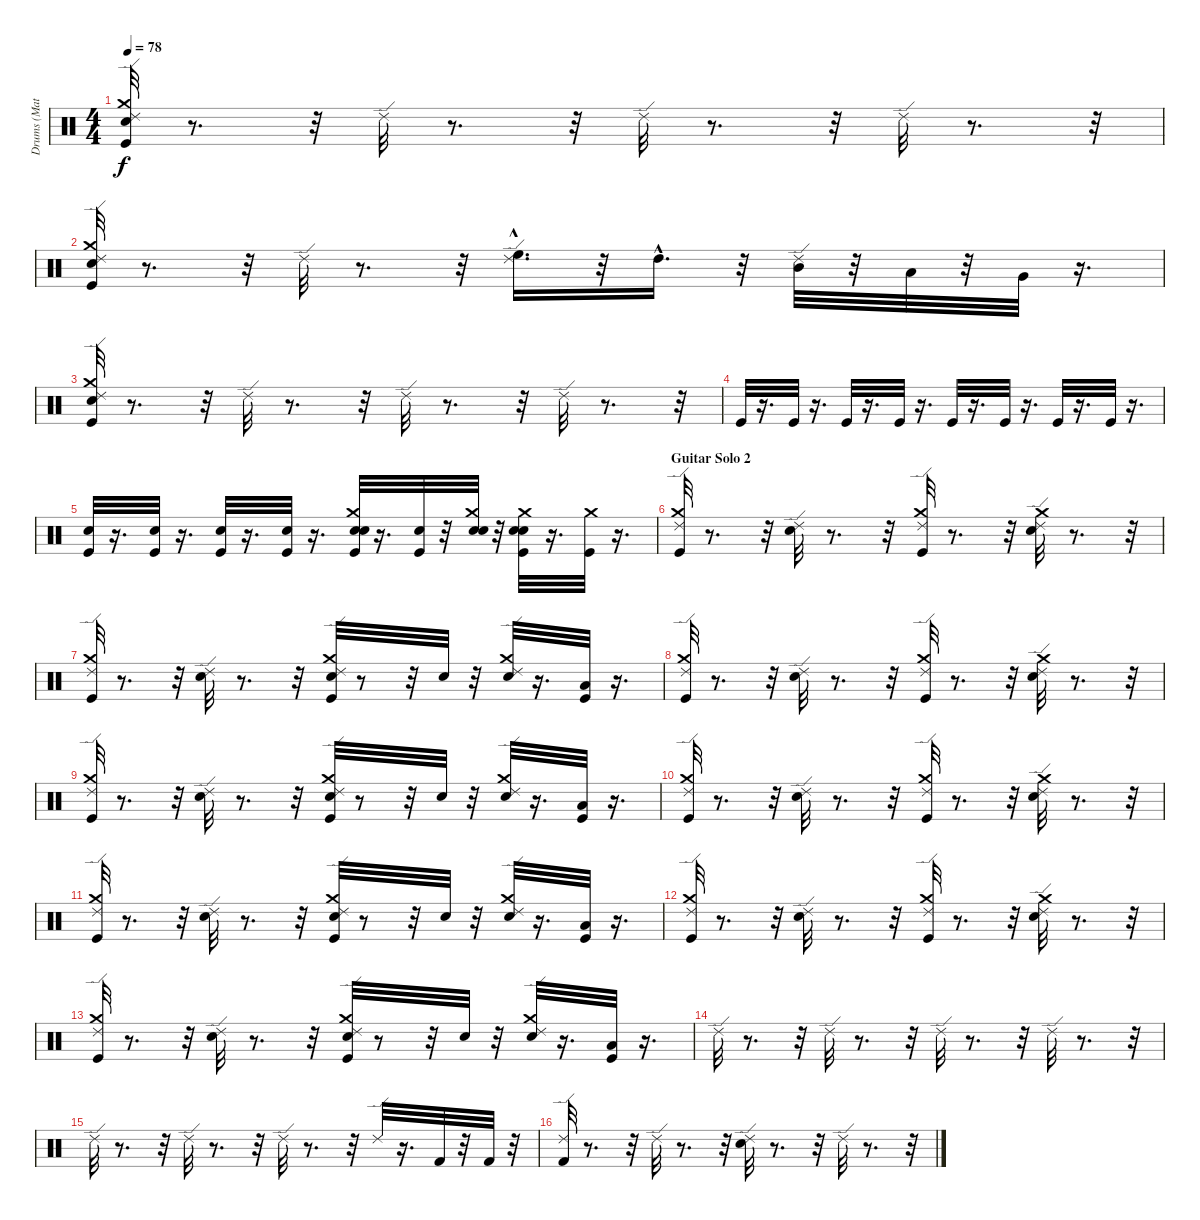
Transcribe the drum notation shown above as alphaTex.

\track ("Drums (Matt)" "Drums (Mat") {instrument percussion}
\staff {score}
\articulation defaults
\ts (4 4)
\tempo 78
\clef neutral
\ks c
("Kick (hit)" "Snare (hit) 2" "Crash medium (hit)" "Ride (edge) 2").32{dy f} r.8{d} r.32 "Ride (edge) 2".32 r.8{d} r.32 "Ride (edge) 2".32 r.8{d} r.32 "Ride (edge) 2".32 r.8{d} r.32 |
("Kick (hit)" "Snare (hit) 2" "Crash medium (hit)" "Ride (edge) 2").32 r.8{d} r.32 "Ride (edge) 2".32 r.8{d} r.32 ("Ride (edge) 2" "High Floor Tom (hit)"{hac}).16{d} r.32 "High Tom (hit)"{hac}.16{d} r.32 ("Ride (edge) 2" "Mid Tom (hit)").32 r.32 "Low Tom (hit)".32 r.32 "Very Low Tom (hit)".32 r.16{d} |
("Kick (hit)" "Snare (hit) 2" "Crash medium (hit)" "Ride (edge) 2").32 r.8{d} r.32 "Ride (edge) 2".32 r.8{d} r.32 "Ride (edge) 2".32 r.8{d} r.32 "Ride (edge) 2".32 r.8{d} r.32 |
"Kick (hit)".32 r.16{d} "Kick (hit)".32 r.16{d} "Kick (hit)".32 r.16{d} "Kick (hit)".32 r.16{d} "Kick (hit)".32 r.16{d} "Kick (hit)".32 r.16{d} "Kick (hit)".32 r.16{d} "Kick (hit)".32 r.16{d} |
("Kick (hit)" "Snare (hit) 2").32 r.16{d} ("Kick (hit)" "Snare (hit) 2").32 r.16{d} ("Kick (hit)" "Snare (hit) 2").32 r.16{d} ("Kick (hit)" "Snare (hit) 2").32 r.16{d} ("Kick (hit)" "Snare (hit) 2" "Electric Snare (hit)" "Crash medium (hit)").32 r.16{d} ("Kick (hit)" "Snare (hit) 2").32 r.32 ("Snare (hit) 2" "Electric Snare (hit)" "Crash medium (hit)").32 r.32 ("Kick (hit)" "Snare (hit) 2" "Electric Snare (hit)" "Crash medium (hit)").32 r.16{d} ("Kick (hit)" "Crash medium (hit)").32 r.16{d} |
\section ("" "Guitar Solo 2")
("Kick (hit)" "Crash medium (hit)" "Ride (edge) 2").32 r.8{d} r.32 ("Snare (hit) 2" "Ride (edge) 2").32 r.8{d} r.32 ("Ride (edge) 2" "Crash medium (hit)" "Kick (hit)").32 r.8{d} r.32 ("Ride (edge) 2" "Crash medium (hit)" "Snare (hit) 2").32 r.8{d} r.32 |
("Kick (hit)" "Crash medium (hit)" "Ride (edge) 2").32 r.8{d} r.32 ("Snare (hit) 2" "Ride (edge) 2").32 r.8{d} r.32 ("Ride (edge) 2" "Crash medium (hit)" "Kick (hit)" "Snare (hit) 2").32 r.8 r.32 "Snare (hit) 2".32 r.32 ("Ride (edge) 2" "Crash medium (hit)" "Snare (hit) 2").32 r.16{d} ("Kick (hit)" "Low Floor Tom (hit)").32 r.16{d} |
("Kick (hit)" "Crash medium (hit)" "Ride (edge) 2").32 r.8{d} r.32 ("Snare (hit) 2" "Ride (edge) 2").32 r.8{d} r.32 ("Ride (edge) 2" "Crash medium (hit)" "Kick (hit)").32 r.8{d} r.32 ("Ride (edge) 2" "Crash medium (hit)" "Snare (hit) 2").32 r.8{d} r.32 |
("Kick (hit)" "Crash medium (hit)" "Ride (edge) 2").32 r.8{d} r.32 ("Snare (hit) 2" "Ride (edge) 2").32 r.8{d} r.32 ("Ride (edge) 2" "Crash medium (hit)" "Kick (hit)" "Snare (hit) 2").32 r.8 r.32 "Snare (hit) 2".32 r.32 ("Ride (edge) 2" "Crash medium (hit)" "Snare (hit) 2").32 r.16{d} ("Kick (hit)" "Low Floor Tom (hit)").32 r.16{d} |
("Kick (hit)" "Crash medium (hit)" "Ride (edge) 2").32 r.8{d} r.32 ("Snare (hit) 2" "Ride (edge) 2").32 r.8{d} r.32 ("Ride (edge) 2" "Crash medium (hit)" "Kick (hit)").32 r.8{d} r.32 ("Ride (edge) 2" "Crash medium (hit)" "Snare (hit) 2").32 r.8{d} r.32 |
("Kick (hit)" "Crash medium (hit)" "Ride (edge) 2").32 r.8{d} r.32 ("Snare (hit) 2" "Ride (edge) 2").32 r.8{d} r.32 ("Ride (edge) 2" "Crash medium (hit)" "Kick (hit)" "Snare (hit) 2").32 r.8 r.32 "Snare (hit) 2".32 r.32 ("Ride (edge) 2" "Crash medium (hit)" "Snare (hit) 2").32 r.16{d} ("Kick (hit)" "Low Floor Tom (hit)").32 r.16{d} |
("Kick (hit)" "Crash medium (hit)" "Ride (edge) 2").32 r.8{d} r.32 ("Snare (hit) 2" "Ride (edge) 2").32 r.8{d} r.32 ("Ride (edge) 2" "Crash medium (hit)" "Kick (hit)").32 r.8{d} r.32 ("Ride (edge) 2" "Crash medium (hit)" "Snare (hit) 2").32 r.8{d} r.32 |
("Kick (hit)" "Crash medium (hit)" "Ride (edge) 2").32 r.8{d} r.32 ("Snare (hit) 2" "Ride (edge) 2").32 r.8{d} r.32 ("Ride (edge) 2" "Crash medium (hit)" "Kick (hit)" "Snare (hit) 2").32 r.8 r.32 "Snare (hit) 2".32 r.32 ("Ride (edge) 2" "Crash medium (hit)" "Snare (hit) 2").32 r.16{d} ("Kick (hit)" "Low Floor Tom (hit)").32 r.16{d} |
"Ride (edge) 2".32 r.8{d} r.32 "Ride (edge) 2".32 r.8{d} r.32 "Ride (edge) 2".32 r.8{d} r.32 "Ride (edge) 2".32 r.8{d} r.32 |
"Ride (edge) 2".32 r.8{d} r.32 "Ride (edge) 2".32 r.8{d} r.32 "Ride (edge) 2".32 r.8{d} r.32 "Ride (edge) 2".32 r.16{d} "Kick (hit) 2".32 r.32 "Kick (hit) 2".32 r.32 |
("Ride (edge) 2" "Kick (hit) 2").32 r.8{d} r.32 "Ride (edge) 2".32 r.8{d} r.32 ("Ride (edge) 2" "Snare (hit) 2").32 r.8{d} r.32 "Ride (edge) 2".32 r.8{d} r.32
